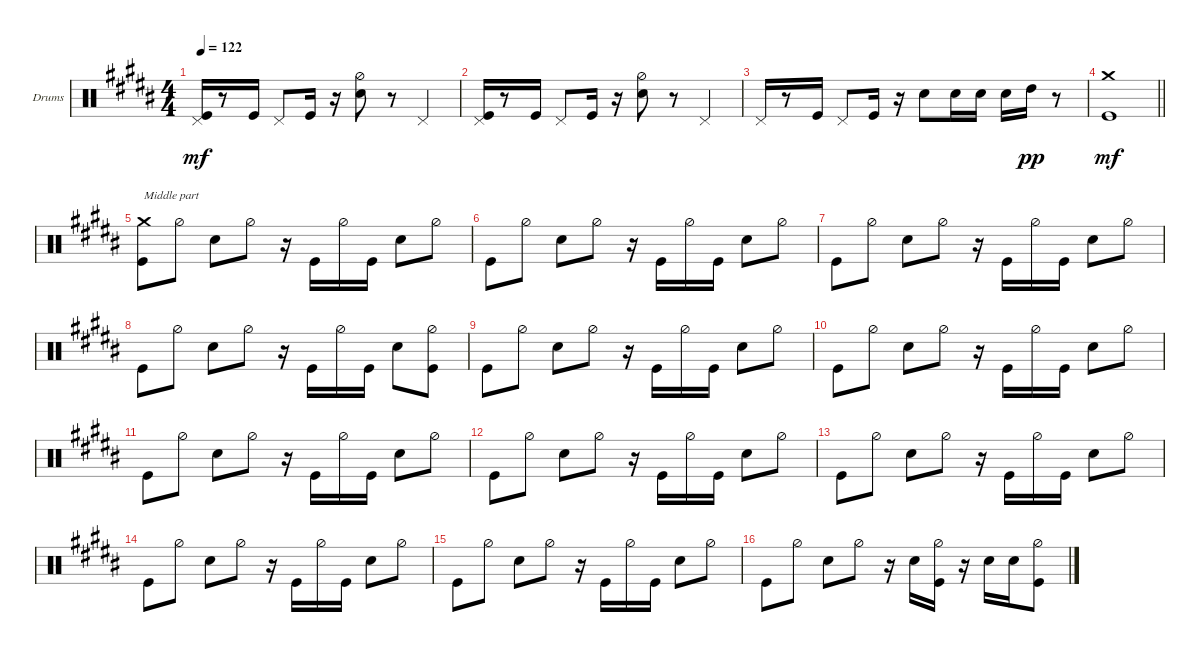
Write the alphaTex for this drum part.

\defaultSystemsLayout 4
\bracketExtendMode groupsimilarinstruments
\firstSystemTrackNameOrientation horizontal
\otherSystemsTrackNameOrientation horizontal
\track ("Drumkit" "Drums") {multiBarRest instrument percussion}
\staff {score}
\articulation defaults
\ts (4 4)
\tempo 122
\clef neutral
\ks b
("Kick (hit)" "Pedal Hi-Hat (hit)").16{dy mf} r.8 "Kick (hit)".16 "Pedal Hi-Hat (hit)".8 "Kick (hit)".16 r.16 ("Snare (hit) 2" "Hi-Hat (half)").8 r.8 "Pedal Hi-Hat (hit)".4 |
("Kick (hit)" "Pedal Hi-Hat (hit)").16 r.8 "Kick (hit)".16 "Pedal Hi-Hat (hit)".8 "Kick (hit)".16 r.16 ("Snare (hit) 2" "Hi-Hat (half)").8 r.8 "Pedal Hi-Hat (hit)".4 |
"Pedal Hi-Hat (hit)".16 r.8 "Kick (hit)".16 "Pedal Hi-Hat (hit)".8 "Kick (hit)".16 r.16 "Snare (hit) 2".8 "Snare (hit) 2".16 "Snare (hit) 2".16 "Snare (hit) 2".16 "High Tom (hit)".16{dy pp} r.8 |
\barLineRight lightlight
("Crash medium (hit)" "Kick (hit)").1{dy mf} |
("Kick (hit)" "Crash medium (hit)").8{txt "Middle part"} "Hi-Hat (half)".8 "Snare (hit) 2".8 "Hi-Hat (half)".8 r.16 "Kick (hit)".16 "Hi-Hat (half)".16 "Kick (hit)".16 "Snare (hit) 2".8 "Hi-Hat (half)".8 |
"Kick (hit)".8 "Hi-Hat (half)".8 "Snare (hit) 2".8 "Hi-Hat (half)".8 r.16 "Kick (hit)".16 "Hi-Hat (half)".16 "Kick (hit)".16 "Snare (hit) 2".8 "Hi-Hat (half)".8 |
"Kick (hit)".8 "Hi-Hat (half)".8 "Snare (hit) 2".8 "Hi-Hat (half)".8 r.16 "Kick (hit)".16 "Hi-Hat (half)".16 "Kick (hit)".16 "Snare (hit) 2".8 "Hi-Hat (half)".8 |
"Kick (hit)".8 "Hi-Hat (half)".8 "Snare (hit) 2".8 "Hi-Hat (half)".8 r.16 "Kick (hit)".16 "Hi-Hat (half)".16 "Kick (hit)".16 "Snare (hit) 2".8 ("Kick (hit)" "Hi-Hat (half)").8 |
"Kick (hit)".8 "Hi-Hat (half)".8 "Snare (hit) 2".8 "Hi-Hat (half)".8 r.16 "Kick (hit)".16 "Hi-Hat (half)".16 "Kick (hit)".16 "Snare (hit) 2".8 "Hi-Hat (half)".8 |
"Kick (hit)".8 "Hi-Hat (half)".8 "Snare (hit) 2".8 "Hi-Hat (half)".8 r.16 "Kick (hit)".16 "Hi-Hat (half)".16 "Kick (hit)".16 "Snare (hit) 2".8 "Hi-Hat (half)".8 |
"Kick (hit)".8 "Hi-Hat (half)".8 "Snare (hit) 2".8 "Hi-Hat (half)".8 r.16 "Kick (hit)".16 "Hi-Hat (half)".16 "Kick (hit)".16 "Snare (hit) 2".8 "Hi-Hat (half)".8 |
"Kick (hit)".8 "Hi-Hat (half)".8 "Snare (hit) 2".8 "Hi-Hat (half)".8 r.16 "Kick (hit)".16 "Hi-Hat (half)".16 "Kick (hit)".16 "Snare (hit) 2".8 "Hi-Hat (half)".8 |
"Kick (hit)".8 "Hi-Hat (half)".8 "Snare (hit) 2".8 "Hi-Hat (half)".8 r.16 "Kick (hit)".16 "Hi-Hat (half)".16 "Kick (hit)".16 "Snare (hit) 2".8 "Hi-Hat (half)".8 |
"Kick (hit)".8 "Hi-Hat (half)".8 "Snare (hit) 2".8 "Hi-Hat (half)".8 r.16 "Kick (hit)".16 "Hi-Hat (half)".16 "Kick (hit)".16 "Snare (hit) 2".8 "Hi-Hat (half)".8 |
"Kick (hit)".8 "Hi-Hat (half)".8 "Snare (hit) 2".8 "Hi-Hat (half)".8 r.16 "Kick (hit)".16 "Hi-Hat (half)".16 "Kick (hit)".16 "Snare (hit) 2".8 "Hi-Hat (half)".8 |
"Kick (hit)".8 "Hi-Hat (half)".8 "Snare (hit) 2".8 "Hi-Hat (half)".8 r.16 "Snare (hit) 2".16 ("Hi-Hat (half)" "Kick (hit)").16 r.16 "Snare (hit) 2".16 "Snare (hit) 2".16 ("Hi-Hat (half)" "Kick (hit)").8
